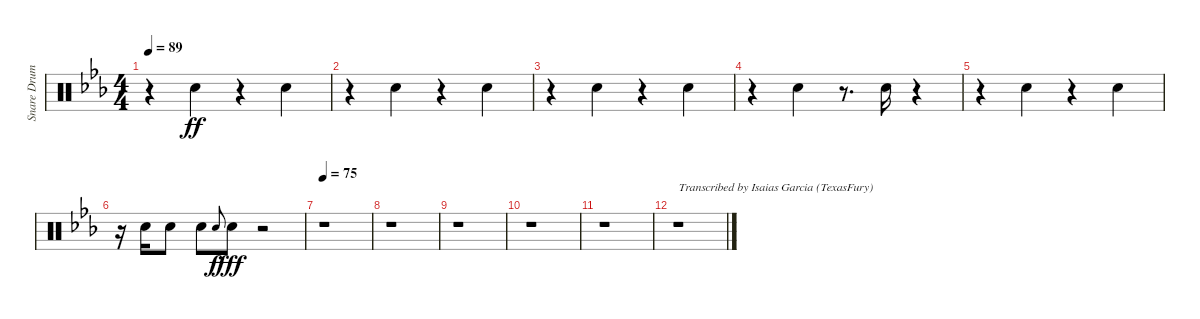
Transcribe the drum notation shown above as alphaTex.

\track ("Snare Drum" "Snare Drum") {instrument percussion}
\staff {score}
\articulation defaults
\ts (4 4)
\tempo 89
\clef neutral
\ks eb
r.4{dy f beam merge} "Electric Snare (hit)".4{dy ff} r.4{beam merge} "Electric Snare (hit)".4 |
r.4{beam merge} "Electric Snare (hit)".4 r.4{beam merge} "Electric Snare (hit)".4 |
r.4{beam merge} "Electric Snare (hit)".4 r.4{beam merge} "Electric Snare (hit)".4 |
r.4{beam merge} "Electric Snare (hit)".4 r.8{d} "Electric Snare (hit)".16 r.4 |
r.4{beam merge} "Electric Snare (hit)".4 r.4{beam merge} "Electric Snare (hit)".4 |
r.16 "Electric Snare (hit)".16 "Electric Snare (hit)".8 "Electric Snare (hit)".8 "Electric Snare (hit)".8{gr onbeat dy f} "Electric Snare (hit)".8{dy fff} r.2 |
\tempo 75
r.1 |
r.1 |
r.1 |
r.1 |
r.1 |
r.1{txt "Transcribed by Isaias Garcia (TexasFury)"}
